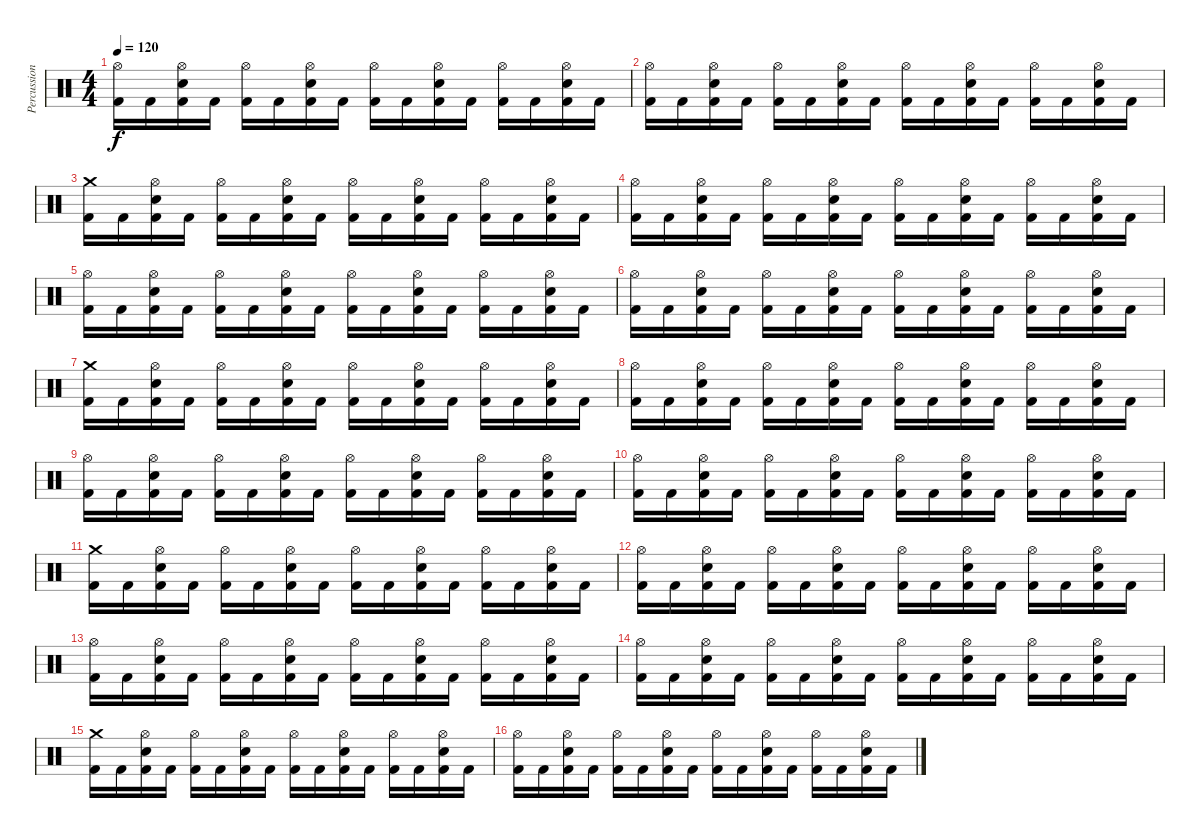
\track ("Percussions" "Percussion") {instrument percussion}
\staff {score}
\articulation defaults
\ts (4 4)
\tempo 120
\clef neutral
\ks c
("Kick (hit) 2" "Hi-Hat (open)").16{dy f} "Kick (hit) 2".16 ("Kick (hit) 2" "Electric Snare (hit)" "Hi-Hat (open)").16 "Kick (hit) 2".16 ("Kick (hit) 2" "Hi-Hat (open)").16 "Kick (hit) 2".16 ("Kick (hit) 2" "Electric Snare (hit)" "Hi-Hat (open)").16 "Kick (hit) 2".16 ("Kick (hit) 2" "Hi-Hat (open)").16 "Kick (hit) 2".16 ("Kick (hit) 2" "Electric Snare (hit)" "Hi-Hat (open)").16 "Kick (hit) 2".16 ("Kick (hit) 2" "Hi-Hat (open)").16 "Kick (hit) 2".16 ("Kick (hit) 2" "Electric Snare (hit)" "Hi-Hat (open)").16 "Kick (hit) 2".16 |
("Kick (hit) 2" "Hi-Hat (open)").16 "Kick (hit) 2".16 ("Kick (hit) 2" "Electric Snare (hit)" "Hi-Hat (open)").16 "Kick (hit) 2".16 ("Kick (hit) 2" "Hi-Hat (open)").16 "Kick (hit) 2".16 ("Kick (hit) 2" "Electric Snare (hit)" "Hi-Hat (open)").16 "Kick (hit) 2".16 ("Kick (hit) 2" "Hi-Hat (open)").16 "Kick (hit) 2".16 ("Kick (hit) 2" "Electric Snare (hit)" "Hi-Hat (open)").16 "Kick (hit) 2".16 ("Kick (hit) 2" "Hi-Hat (open)").16 "Kick (hit) 2".16 ("Kick (hit) 2" "Electric Snare (hit)" "Hi-Hat (open)").16 "Kick (hit) 2".16 |
("Kick (hit) 2" "Crash medium (hit)").16 "Kick (hit) 2".16 ("Kick (hit) 2" "Electric Snare (hit)" "Hi-Hat (open)").16 "Kick (hit) 2".16 ("Kick (hit) 2" "Hi-Hat (open)").16 "Kick (hit) 2".16 ("Kick (hit) 2" "Electric Snare (hit)" "Hi-Hat (open)").16 "Kick (hit) 2".16 ("Kick (hit) 2" "Hi-Hat (open)").16 "Kick (hit) 2".16 ("Kick (hit) 2" "Electric Snare (hit)" "Hi-Hat (open)").16 "Kick (hit) 2".16 ("Kick (hit) 2" "Hi-Hat (open)").16 "Kick (hit) 2".16 ("Kick (hit) 2" "Electric Snare (hit)" "Hi-Hat (open)").16 "Kick (hit) 2".16 |
("Kick (hit) 2" "Hi-Hat (open)").16 "Kick (hit) 2".16 ("Kick (hit) 2" "Electric Snare (hit)" "Hi-Hat (open)").16 "Kick (hit) 2".16 ("Kick (hit) 2" "Hi-Hat (open)").16 "Kick (hit) 2".16 ("Kick (hit) 2" "Electric Snare (hit)" "Hi-Hat (open)").16 "Kick (hit) 2".16 ("Kick (hit) 2" "Hi-Hat (open)").16 "Kick (hit) 2".16 ("Kick (hit) 2" "Electric Snare (hit)" "Hi-Hat (open)").16 "Kick (hit) 2".16 ("Kick (hit) 2" "Hi-Hat (open)").16 "Kick (hit) 2".16 ("Kick (hit) 2" "Electric Snare (hit)" "Hi-Hat (open)").16 "Kick (hit) 2".16 |
("Kick (hit) 2" "Hi-Hat (open)").16 "Kick (hit) 2".16 ("Kick (hit) 2" "Electric Snare (hit)" "Hi-Hat (open)").16 "Kick (hit) 2".16 ("Kick (hit) 2" "Hi-Hat (open)").16 "Kick (hit) 2".16 ("Kick (hit) 2" "Electric Snare (hit)" "Hi-Hat (open)").16 "Kick (hit) 2".16 ("Kick (hit) 2" "Hi-Hat (open)").16 "Kick (hit) 2".16 ("Kick (hit) 2" "Electric Snare (hit)" "Hi-Hat (open)").16 "Kick (hit) 2".16 ("Kick (hit) 2" "Hi-Hat (open)").16 "Kick (hit) 2".16 ("Kick (hit) 2" "Electric Snare (hit)" "Hi-Hat (open)").16 "Kick (hit) 2".16 |
("Kick (hit) 2" "Hi-Hat (open)").16 "Kick (hit) 2".16 ("Kick (hit) 2" "Electric Snare (hit)" "Hi-Hat (open)").16 "Kick (hit) 2".16 ("Kick (hit) 2" "Hi-Hat (open)").16 "Kick (hit) 2".16 ("Kick (hit) 2" "Electric Snare (hit)" "Hi-Hat (open)").16 "Kick (hit) 2".16 ("Kick (hit) 2" "Hi-Hat (open)").16 "Kick (hit) 2".16 ("Kick (hit) 2" "Electric Snare (hit)" "Hi-Hat (open)").16 "Kick (hit) 2".16 ("Kick (hit) 2" "Hi-Hat (open)").16 "Kick (hit) 2".16 ("Kick (hit) 2" "Electric Snare (hit)" "Hi-Hat (open)").16 "Kick (hit) 2".16 |
("Kick (hit) 2" "Crash medium (hit)").16 "Kick (hit) 2".16 ("Kick (hit) 2" "Electric Snare (hit)" "Hi-Hat (open)").16 "Kick (hit) 2".16 ("Kick (hit) 2" "Hi-Hat (open)").16 "Kick (hit) 2".16 ("Kick (hit) 2" "Electric Snare (hit)" "Hi-Hat (open)").16 "Kick (hit) 2".16 ("Kick (hit) 2" "Hi-Hat (open)").16 "Kick (hit) 2".16 ("Kick (hit) 2" "Electric Snare (hit)" "Hi-Hat (open)").16 "Kick (hit) 2".16 ("Kick (hit) 2" "Hi-Hat (open)").16 "Kick (hit) 2".16 ("Kick (hit) 2" "Electric Snare (hit)" "Hi-Hat (open)").16 "Kick (hit) 2".16 |
("Kick (hit) 2" "Hi-Hat (open)").16 "Kick (hit) 2".16 ("Kick (hit) 2" "Electric Snare (hit)" "Hi-Hat (open)").16 "Kick (hit) 2".16 ("Kick (hit) 2" "Hi-Hat (open)").16 "Kick (hit) 2".16 ("Kick (hit) 2" "Electric Snare (hit)" "Hi-Hat (open)").16 "Kick (hit) 2".16 ("Kick (hit) 2" "Hi-Hat (open)").16 "Kick (hit) 2".16 ("Kick (hit) 2" "Electric Snare (hit)" "Hi-Hat (open)").16 "Kick (hit) 2".16 ("Kick (hit) 2" "Hi-Hat (open)").16 "Kick (hit) 2".16 ("Kick (hit) 2" "Electric Snare (hit)" "Hi-Hat (open)").16 "Kick (hit) 2".16 |
("Kick (hit) 2" "Hi-Hat (open)").16 "Kick (hit) 2".16 ("Kick (hit) 2" "Electric Snare (hit)" "Hi-Hat (open)").16 "Kick (hit) 2".16 ("Kick (hit) 2" "Hi-Hat (open)").16 "Kick (hit) 2".16 ("Kick (hit) 2" "Electric Snare (hit)" "Hi-Hat (open)").16 "Kick (hit) 2".16 ("Kick (hit) 2" "Hi-Hat (open)").16 "Kick (hit) 2".16 ("Kick (hit) 2" "Electric Snare (hit)" "Hi-Hat (open)").16 "Kick (hit) 2".16 ("Kick (hit) 2" "Hi-Hat (open)").16 "Kick (hit) 2".16 ("Kick (hit) 2" "Electric Snare (hit)" "Hi-Hat (open)").16 "Kick (hit) 2".16 |
("Kick (hit) 2" "Hi-Hat (open)").16 "Kick (hit) 2".16 ("Kick (hit) 2" "Electric Snare (hit)" "Hi-Hat (open)").16 "Kick (hit) 2".16 ("Kick (hit) 2" "Hi-Hat (open)").16 "Kick (hit) 2".16 ("Kick (hit) 2" "Electric Snare (hit)" "Hi-Hat (open)").16 "Kick (hit) 2".16 ("Kick (hit) 2" "Hi-Hat (open)").16 "Kick (hit) 2".16 ("Kick (hit) 2" "Electric Snare (hit)" "Hi-Hat (open)").16 "Kick (hit) 2".16 ("Kick (hit) 2" "Hi-Hat (open)").16 "Kick (hit) 2".16 ("Kick (hit) 2" "Electric Snare (hit)" "Hi-Hat (open)").16 "Kick (hit) 2".16 |
("Kick (hit) 2" "Crash medium (hit)").16 "Kick (hit) 2".16 ("Kick (hit) 2" "Electric Snare (hit)" "Hi-Hat (open)").16 "Kick (hit) 2".16 ("Kick (hit) 2" "Hi-Hat (open)").16 "Kick (hit) 2".16 ("Kick (hit) 2" "Electric Snare (hit)" "Hi-Hat (open)").16 "Kick (hit) 2".16 ("Kick (hit) 2" "Hi-Hat (open)").16 "Kick (hit) 2".16 ("Kick (hit) 2" "Electric Snare (hit)" "Hi-Hat (open)").16 "Kick (hit) 2".16 ("Kick (hit) 2" "Hi-Hat (open)").16 "Kick (hit) 2".16 ("Kick (hit) 2" "Electric Snare (hit)" "Hi-Hat (open)").16 "Kick (hit) 2".16 |
("Kick (hit) 2" "Hi-Hat (open)").16 "Kick (hit) 2".16 ("Kick (hit) 2" "Electric Snare (hit)" "Hi-Hat (open)").16 "Kick (hit) 2".16 ("Kick (hit) 2" "Hi-Hat (open)").16 "Kick (hit) 2".16 ("Kick (hit) 2" "Electric Snare (hit)" "Hi-Hat (open)").16 "Kick (hit) 2".16 ("Kick (hit) 2" "Hi-Hat (open)").16 "Kick (hit) 2".16 ("Kick (hit) 2" "Electric Snare (hit)" "Hi-Hat (open)").16 "Kick (hit) 2".16 ("Kick (hit) 2" "Hi-Hat (open)").16 "Kick (hit) 2".16 ("Kick (hit) 2" "Electric Snare (hit)" "Hi-Hat (open)").16 "Kick (hit) 2".16 |
("Kick (hit) 2" "Hi-Hat (open)").16 "Kick (hit) 2".16 ("Kick (hit) 2" "Electric Snare (hit)" "Hi-Hat (open)").16 "Kick (hit) 2".16 ("Kick (hit) 2" "Hi-Hat (open)").16 "Kick (hit) 2".16 ("Kick (hit) 2" "Electric Snare (hit)" "Hi-Hat (open)").16 "Kick (hit) 2".16 ("Kick (hit) 2" "Hi-Hat (open)").16 "Kick (hit) 2".16 ("Kick (hit) 2" "Electric Snare (hit)" "Hi-Hat (open)").16 "Kick (hit) 2".16 ("Kick (hit) 2" "Hi-Hat (open)").16 "Kick (hit) 2".16 ("Kick (hit) 2" "Electric Snare (hit)" "Hi-Hat (open)").16 "Kick (hit) 2".16 |
("Kick (hit) 2" "Hi-Hat (open)").16 "Kick (hit) 2".16 ("Kick (hit) 2" "Electric Snare (hit)" "Hi-Hat (open)").16 "Kick (hit) 2".16 ("Kick (hit) 2" "Hi-Hat (open)").16 "Kick (hit) 2".16 ("Kick (hit) 2" "Electric Snare (hit)" "Hi-Hat (open)").16 "Kick (hit) 2".16 ("Kick (hit) 2" "Hi-Hat (open)").16 "Kick (hit) 2".16 ("Kick (hit) 2" "Electric Snare (hit)" "Hi-Hat (open)").16 "Kick (hit) 2".16 ("Kick (hit) 2" "Hi-Hat (open)").16 "Kick (hit) 2".16 ("Kick (hit) 2" "Electric Snare (hit)" "Hi-Hat (open)").16 "Kick (hit) 2".16 |
("Kick (hit) 2" "Crash medium (hit)").16 "Kick (hit) 2".16 ("Kick (hit) 2" "Electric Snare (hit)" "Hi-Hat (open)").16 "Kick (hit) 2".16 ("Kick (hit) 2" "Hi-Hat (open)").16 "Kick (hit) 2".16 ("Kick (hit) 2" "Electric Snare (hit)" "Hi-Hat (open)").16 "Kick (hit) 2".16 ("Kick (hit) 2" "Hi-Hat (open)").16 "Kick (hit) 2".16 ("Kick (hit) 2" "Electric Snare (hit)" "Hi-Hat (open)").16 "Kick (hit) 2".16 ("Kick (hit) 2" "Hi-Hat (open)").16 "Kick (hit) 2".16 ("Kick (hit) 2" "Electric Snare (hit)" "Hi-Hat (open)").16 "Kick (hit) 2".16 |
("Kick (hit) 2" "Hi-Hat (open)").16 "Kick (hit) 2".16 ("Kick (hit) 2" "Electric Snare (hit)" "Hi-Hat (open)").16 "Kick (hit) 2".16 ("Kick (hit) 2" "Hi-Hat (open)").16 "Kick (hit) 2".16 ("Kick (hit) 2" "Electric Snare (hit)" "Hi-Hat (open)").16 "Kick (hit) 2".16 ("Kick (hit) 2" "Hi-Hat (open)").16 "Kick (hit) 2".16 ("Kick (hit) 2" "Electric Snare (hit)" "Hi-Hat (open)").16 "Kick (hit) 2".16 ("Kick (hit) 2" "Hi-Hat (open)").16 "Kick (hit) 2".16 ("Kick (hit) 2" "Electric Snare (hit)" "Hi-Hat (open)").16 "Kick (hit) 2".16
